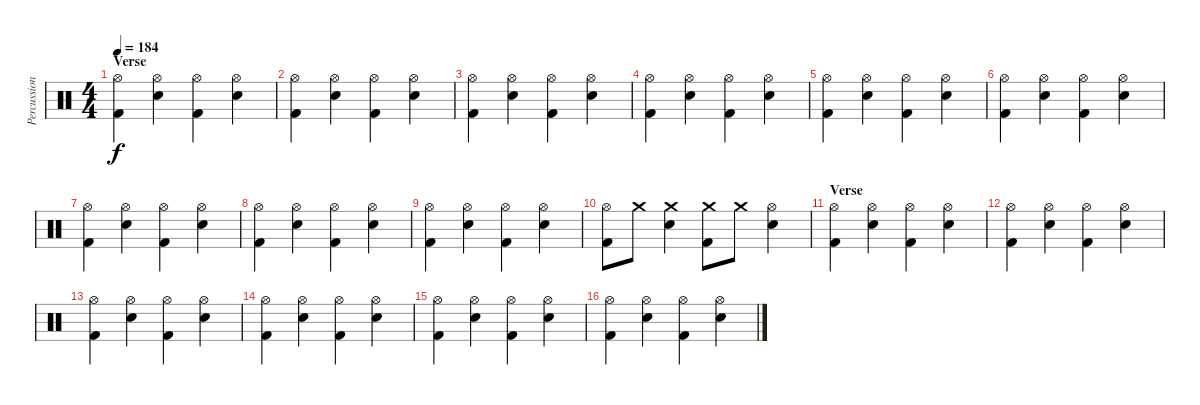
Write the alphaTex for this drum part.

\track ("Percussioni" "Percussion") {instrument percussion}
\staff {score}
\articulation defaults
\ts (4 4)
\section ("" "Verse")
\tempo 184
\clef neutral
\ks c
("Hi-Hat (open)" "Kick (hit) 2").4{dy f} ("Hi-Hat (open)" "Electric Snare (hit)").4 ("Hi-Hat (open)" "Kick (hit) 2").4 ("Hi-Hat (open)" "Electric Snare (hit)").4 |
("Hi-Hat (open)" "Kick (hit) 2").4 ("Hi-Hat (open)" "Electric Snare (hit)").4 ("Hi-Hat (open)" "Kick (hit) 2").4 ("Hi-Hat (open)" "Electric Snare (hit)").4 |
("Hi-Hat (open)" "Kick (hit) 2").4 ("Hi-Hat (open)" "Electric Snare (hit)").4 ("Hi-Hat (open)" "Kick (hit) 2").4 ("Hi-Hat (open)" "Electric Snare (hit)").4 |
("Hi-Hat (open)" "Kick (hit) 2").4 ("Hi-Hat (open)" "Electric Snare (hit)").4 ("Hi-Hat (open)" "Kick (hit) 2").4 ("Hi-Hat (open)" "Electric Snare (hit)").4 |
("Hi-Hat (open)" "Kick (hit) 2").4 ("Hi-Hat (open)" "Electric Snare (hit)").4 ("Hi-Hat (open)" "Kick (hit) 2").4 ("Hi-Hat (open)" "Electric Snare (hit)").4 |
("Hi-Hat (open)" "Kick (hit) 2").4 ("Hi-Hat (open)" "Electric Snare (hit)").4 ("Hi-Hat (open)" "Kick (hit) 2").4 ("Hi-Hat (open)" "Electric Snare (hit)").4 |
("Hi-Hat (open)" "Kick (hit) 2").4 ("Hi-Hat (open)" "Electric Snare (hit)").4 ("Hi-Hat (open)" "Kick (hit) 2").4 ("Hi-Hat (open)" "Electric Snare (hit)").4 |
("Hi-Hat (open)" "Kick (hit) 2").4 ("Hi-Hat (open)" "Electric Snare (hit)").4 ("Hi-Hat (open)" "Kick (hit) 2").4 ("Hi-Hat (open)" "Electric Snare (hit)").4 |
("Hi-Hat (open)" "Kick (hit) 2").4 ("Hi-Hat (open)" "Electric Snare (hit)").4 ("Hi-Hat (open)" "Kick (hit) 2").4 ("Hi-Hat (open)" "Electric Snare (hit)").4 |
("Hi-Hat (open)" "Kick (hit) 2").8 "Crash medium (hit)".8 ("Crash medium (hit)" "Electric Snare (hit)").4 ("Crash medium (hit)" "Kick (hit) 2").8 "Crash medium (hit)".8 ("Hi-Hat (open)" "Electric Snare (hit)").4 |
\section ("" "Verse")
("Hi-Hat (open)" "Kick (hit) 2").4 ("Hi-Hat (open)" "Electric Snare (hit)").4 ("Hi-Hat (open)" "Kick (hit) 2").4 ("Hi-Hat (open)" "Electric Snare (hit)").4 |
("Hi-Hat (open)" "Kick (hit) 2").4 ("Hi-Hat (open)" "Electric Snare (hit)").4 ("Hi-Hat (open)" "Kick (hit) 2").4 ("Hi-Hat (open)" "Electric Snare (hit)").4 |
("Hi-Hat (open)" "Kick (hit) 2").4 ("Hi-Hat (open)" "Electric Snare (hit)").4 ("Hi-Hat (open)" "Kick (hit) 2").4 ("Hi-Hat (open)" "Electric Snare (hit)").4 |
("Hi-Hat (open)" "Kick (hit) 2").4 ("Hi-Hat (open)" "Electric Snare (hit)").4 ("Hi-Hat (open)" "Kick (hit) 2").4 ("Hi-Hat (open)" "Electric Snare (hit)").4 |
("Hi-Hat (open)" "Kick (hit) 2").4 ("Hi-Hat (open)" "Electric Snare (hit)").4 ("Hi-Hat (open)" "Kick (hit) 2").4 ("Hi-Hat (open)" "Electric Snare (hit)").4 |
("Hi-Hat (open)" "Kick (hit) 2").4 ("Hi-Hat (open)" "Electric Snare (hit)").4 ("Hi-Hat (open)" "Kick (hit) 2").4 ("Hi-Hat (open)" "Electric Snare (hit)").4
